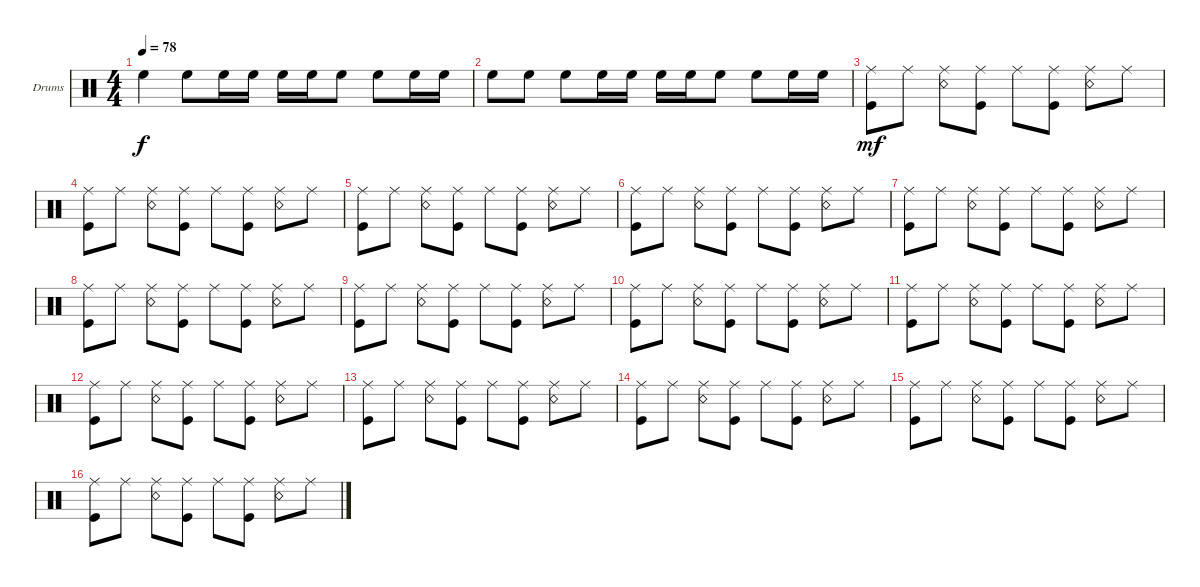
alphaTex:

\defaultSystemsLayout 4
\bracketExtendMode groupsimilarinstruments
\firstSystemTrackNameOrientation horizontal
\otherSystemsTrackNameOrientation horizontal
\track ("Drumkit" "Drums") {instrument percussion}
\staff {score}
\articulation defaults
\ts (4 4)
\tempo 78
\clef neutral
\scale
0.333333
\ks c "High Floor Tom (hit)".4{dy f} "High Floor Tom (hit)".8 "High Floor Tom (hit)".16 "High Floor Tom (hit)".16 "High Floor Tom (hit)".16 "High Floor Tom (hit)".16 "High Floor Tom (hit)".8 "High Floor Tom (hit)".8 "High Floor Tom (hit)".16 "High Floor Tom (hit)".16
|
\scale
0.333333 "High Floor Tom (hit)".8 "High Floor Tom (hit)".8 "High Floor Tom (hit)".8 "High Floor Tom (hit)".16 "High Floor Tom (hit)".16 "High Floor Tom (hit)".16 "High Floor Tom (hit)".16 "High Floor Tom (hit)".8 "High Floor Tom (hit)".8 "High Floor Tom (hit)".16 "High Floor Tom (hit)".16 |
\scale
0.333333 ("Kick (hit)" "Ride (middle)").8{dy mf} "Ride (middle)".8 ("Snare (rim shot)" "Ride (middle)").8 ("Kick (hit)" "Ride (middle)").8 "Ride (middle)".8 ("Kick (hit)" "Ride (middle)").8 ("Snare (rim shot)" "Ride (middle)").8 "Ride (middle)".8 |
\scale
0.333333 ("Kick (hit)" "Ride (middle)").8 "Ride (middle)".8 ("Snare (rim shot)" "Ride (middle)").8 ("Kick (hit)" "Ride (middle)").8 "Ride (middle)".8 ("Kick (hit)" "Ride (middle)").8 ("Snare (rim shot)" "Ride (middle)").8 "Ride (middle)".8 |
\scale
0.333333 ("Kick (hit)" "Ride (middle)").8 "Ride (middle)".8 ("Snare (rim shot)" "Ride (middle)").8 ("Kick (hit)" "Ride (middle)").8 "Ride (middle)".8 ("Kick (hit)" "Ride (middle)").8 ("Snare (rim shot)" "Ride (middle)").8 "Ride (middle)".8 |
\scale
0.333333 ("Kick (hit)" "Ride (middle)").8 "Ride (middle)".8 ("Snare (rim shot)" "Ride (middle)").8 ("Kick (hit)" "Ride (middle)").8 "Ride (middle)".8 ("Kick (hit)" "Ride (middle)").8 ("Snare (rim shot)" "Ride (middle)").8 "Ride (middle)".8 |
\scale
0.333333 ("Kick (hit)" "Ride (middle)").8 "Ride (middle)".8 ("Snare (rim shot)" "Ride (middle)").8 ("Kick (hit)" "Ride (middle)").8 "Ride (middle)".8 ("Kick (hit)" "Ride (middle)").8 ("Snare (rim shot)" "Ride (middle)").8 "Ride (middle)".8 |
\scale
0.333333 ("Kick (hit)" "Ride (middle)").8 "Ride (middle)".8 ("Snare (rim shot)" "Ride (middle)").8 ("Kick (hit)" "Ride (middle)").8 "Ride (middle)".8 ("Kick (hit)" "Ride (middle)").8 ("Snare (rim shot)" "Ride (middle)").8 "Ride (middle)".8 |
\scale
0.333333 ("Kick (hit)" "Ride (middle)").8 "Ride (middle)".8 ("Snare (rim shot)" "Ride (middle)").8 ("Kick (hit)" "Ride (middle)").8 "Ride (middle)".8 ("Kick (hit)" "Ride (middle)").8 ("Snare (rim shot)" "Ride (middle)").8 "Ride (middle)".8 |
("Kick (hit)" "Ride (middle)").8 "Ride (middle)".8 ("Snare (rim shot)" "Ride (middle)").8 ("Kick (hit)" "Ride (middle)").8 "Ride (middle)".8 ("Kick (hit)" "Ride (middle)").8 ("Snare (rim shot)" "Ride (middle)").8 "Ride (middle)".8 |
("Kick (hit)" "Ride (middle)").8 "Ride (middle)".8 ("Snare (rim shot)" "Ride (middle)").8 ("Kick (hit)" "Ride (middle)").8 "Ride (middle)".8 ("Kick (hit)" "Ride (middle)").8 ("Snare (rim shot)" "Ride (middle)").8 "Ride (middle)".8 |
("Kick (hit)" "Ride (middle)").8 "Ride (middle)".8 ("Snare (rim shot)" "Ride (middle)").8 ("Kick (hit)" "Ride (middle)").8 "Ride (middle)".8 ("Kick (hit)" "Ride (middle)").8 ("Snare (rim shot)" "Ride (middle)").8 "Ride (middle)".8 |
("Kick (hit)" "Ride (middle)").8 "Ride (middle)".8 ("Snare (rim shot)" "Ride (middle)").8 ("Kick (hit)" "Ride (middle)").8 "Ride (middle)".8 ("Kick (hit)" "Ride (middle)").8 ("Snare (rim shot)" "Ride (middle)").8 "Ride (middle)".8 |
("Kick (hit)" "Ride (middle)").8 "Ride (middle)".8 ("Snare (rim shot)" "Ride (middle)").8 ("Kick (hit)" "Ride (middle)").8 "Ride (middle)".8 ("Kick (hit)" "Ride (middle)").8 ("Snare (rim shot)" "Ride (middle)").8 "Ride (middle)".8 |
("Kick (hit)" "Ride (middle)").8 "Ride (middle)".8 ("Snare (rim shot)" "Ride (middle)").8 ("Kick (hit)" "Ride (middle)").8 "Ride (middle)".8 ("Kick (hit)" "Ride (middle)").8 ("Snare (rim shot)" "Ride (middle)").8 "Ride (middle)".8 |
("Kick (hit)" "Ride (middle)").8 "Ride (middle)".8 ("Snare (rim shot)" "Ride (middle)").8 ("Kick (hit)" "Ride (middle)").8 "Ride (middle)".8 ("Kick (hit)" "Ride (middle)").8 ("Snare (rim shot)" "Ride (middle)").8 "Ride (middle)".8
